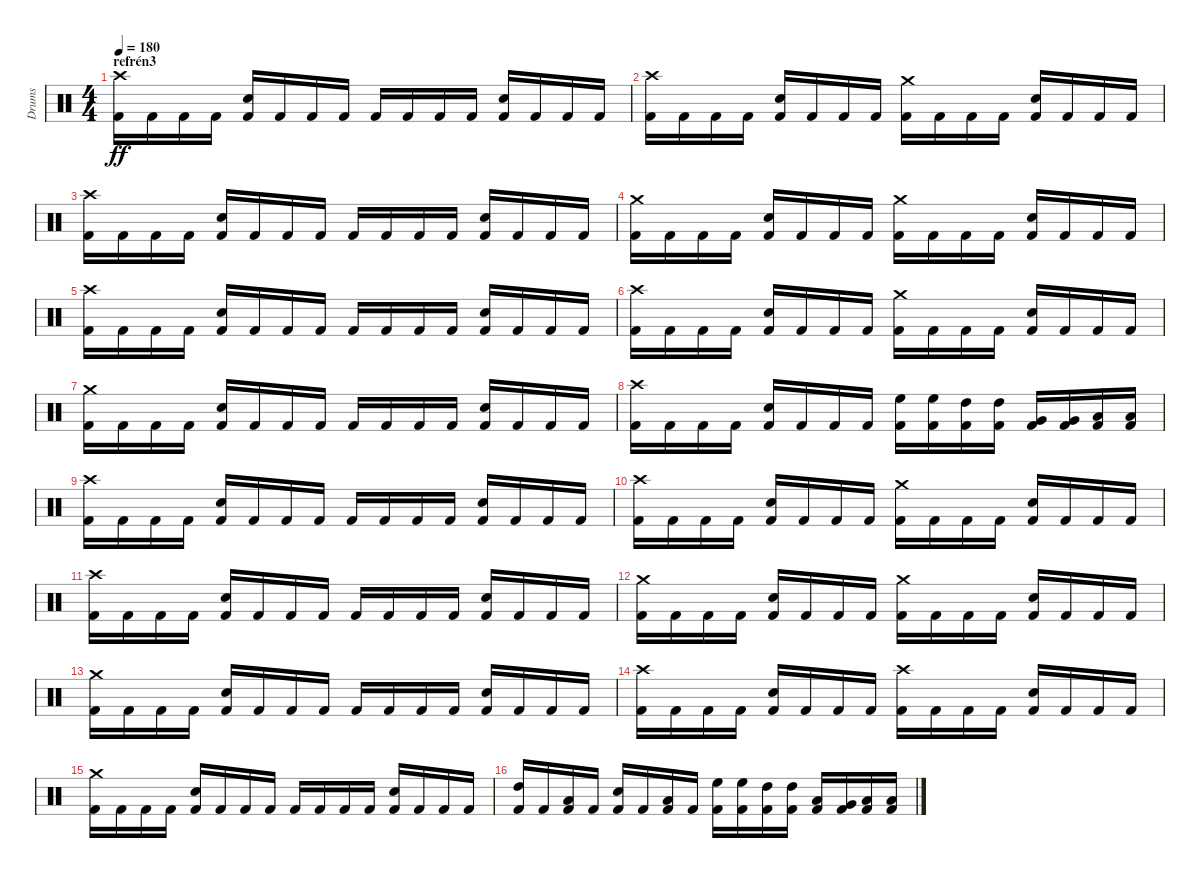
\track ("Drums" "Drums") {instrument percussion}
\staff {score}
\articulation defaults
\ts (4 4)
\section ("" "refrén3")
\tempo 180
\clef neutral
\ks c
("Crash high (hit)" "Kick (hit) 2").16{dy ff} "Kick (hit) 2".16 "Kick (hit) 2".16 "Kick (hit) 2".16 ("Snare (hit) 2" "Kick (hit) 2").16 "Kick (hit) 2".16 "Kick (hit) 2".16 "Kick (hit) 2".16 "Kick (hit) 2".16 "Kick (hit) 2".16 "Kick (hit) 2".16 "Kick (hit) 2".16 ("Snare (hit) 2" "Kick (hit) 2").16 "Kick (hit) 2".16 "Kick (hit) 2".16 "Kick (hit) 2".16 |
("Crash high (hit)" "Kick (hit) 2").16 "Kick (hit) 2".16 "Kick (hit) 2".16 "Kick (hit) 2".16 ("Snare (hit) 2" "Kick (hit) 2").16 "Kick (hit) 2".16 "Kick (hit) 2".16 "Kick (hit) 2".16 ("Crash medium (hit)" "Kick (hit) 2").16 "Kick (hit) 2".16 "Kick (hit) 2".16 "Kick (hit) 2".16 ("Snare (hit) 2" "Kick (hit) 2").16 "Kick (hit) 2".16 "Kick (hit) 2".16 "Kick (hit) 2".16 |
("Crash high (hit)" "Kick (hit) 2").16 "Kick (hit) 2".16 "Kick (hit) 2".16 "Kick (hit) 2".16 ("Snare (hit) 2" "Kick (hit) 2").16 "Kick (hit) 2".16 "Kick (hit) 2".16 "Kick (hit) 2".16 "Kick (hit) 2".16 "Kick (hit) 2".16 "Kick (hit) 2".16 "Kick (hit) 2".16 ("Snare (hit) 2" "Kick (hit) 2").16 "Kick (hit) 2".16 "Kick (hit) 2".16 "Kick (hit) 2".16 |
("Crash medium (hit)" "Kick (hit) 2").16 "Kick (hit) 2".16 "Kick (hit) 2".16 "Kick (hit) 2".16 ("Snare (hit) 2" "Kick (hit) 2").16 "Kick (hit) 2".16 "Kick (hit) 2".16 "Kick (hit) 2".16 ("Crash medium (hit)" "Kick (hit) 2").16 "Kick (hit) 2".16 "Kick (hit) 2".16 "Kick (hit) 2".16 ("Snare (hit) 2" "Kick (hit) 2").16 "Kick (hit) 2".16 "Kick (hit) 2".16 "Kick (hit) 2".16 |
("Crash high (hit)" "Kick (hit) 2").16 "Kick (hit) 2".16 "Kick (hit) 2".16 "Kick (hit) 2".16 ("Snare (hit) 2" "Kick (hit) 2").16 "Kick (hit) 2".16 "Kick (hit) 2".16 "Kick (hit) 2".16 "Kick (hit) 2".16 "Kick (hit) 2".16 "Kick (hit) 2".16 "Kick (hit) 2".16 ("Snare (hit) 2" "Kick (hit) 2").16 "Kick (hit) 2".16 "Kick (hit) 2".16 "Kick (hit) 2".16 |
("Crash high (hit)" "Kick (hit) 2").16 "Kick (hit) 2".16 "Kick (hit) 2".16 "Kick (hit) 2".16 ("Snare (hit) 2" "Kick (hit) 2").16 "Kick (hit) 2".16 "Kick (hit) 2".16 "Kick (hit) 2".16 ("Crash medium (hit)" "Kick (hit) 2").16 "Kick (hit) 2".16 "Kick (hit) 2".16 "Kick (hit) 2".16 ("Snare (hit) 2" "Kick (hit) 2").16 "Kick (hit) 2".16 "Kick (hit) 2".16 "Kick (hit) 2".16 |
("Crash medium (hit)" "Kick (hit) 2").16 "Kick (hit) 2".16 "Kick (hit) 2".16 "Kick (hit) 2".16 ("Snare (hit) 2" "Kick (hit) 2").16 "Kick (hit) 2".16 "Kick (hit) 2".16 "Kick (hit) 2".16 "Kick (hit) 2".16 "Kick (hit) 2".16 "Kick (hit) 2".16 "Kick (hit) 2".16 ("Snare (hit) 2" "Kick (hit) 2").16 "Kick (hit) 2".16 "Kick (hit) 2".16 "Kick (hit) 2".16 |
("Crash high (hit)" "Kick (hit) 2").16 "Kick (hit) 2".16 "Kick (hit) 2".16 "Kick (hit) 2".16 ("Snare (hit) 2" "Kick (hit) 2").16 "Kick (hit) 2".16 "Kick (hit) 2".16 "Kick (hit) 2".16 ("High Floor Tom (hit)" "Kick (hit) 2").16 ("High Floor Tom (hit)" "Kick (hit) 2").16 ("High Tom (hit)" "Kick (hit) 2").16 ("High Tom (hit)" "Kick (hit) 2").16 ("Very Low Tom (hit)" "Kick (hit) 2").16 ("Very Low Tom (hit)" "Kick (hit) 2").16 ("Low Floor Tom (hit)" "Kick (hit) 2").16 ("Low Floor Tom (hit)" "Kick (hit) 2").16 |
("Crash high (hit)" "Kick (hit) 2").16 "Kick (hit) 2".16 "Kick (hit) 2".16 "Kick (hit) 2".16 ("Snare (hit) 2" "Kick (hit) 2").16 "Kick (hit) 2".16 "Kick (hit) 2".16 "Kick (hit) 2".16 "Kick (hit) 2".16 "Kick (hit) 2".16 "Kick (hit) 2".16 "Kick (hit) 2".16 ("Snare (hit) 2" "Kick (hit) 2").16 "Kick (hit) 2".16 "Kick (hit) 2".16 "Kick (hit) 2".16 |
("Crash high (hit)" "Kick (hit) 2").16 "Kick (hit) 2".16 "Kick (hit) 2".16 "Kick (hit) 2".16 ("Snare (hit) 2" "Kick (hit) 2").16 "Kick (hit) 2".16 "Kick (hit) 2".16 "Kick (hit) 2".16 ("Crash medium (hit)" "Kick (hit) 2").16 "Kick (hit) 2".16 "Kick (hit) 2".16 "Kick (hit) 2".16 ("Snare (hit) 2" "Kick (hit) 2").16 "Kick (hit) 2".16 "Kick (hit) 2".16 "Kick (hit) 2".16 |
("Crash high (hit)" "Kick (hit) 2").16 "Kick (hit) 2".16 "Kick (hit) 2".16 "Kick (hit) 2".16 ("Snare (hit) 2" "Kick (hit) 2").16 "Kick (hit) 2".16 "Kick (hit) 2".16 "Kick (hit) 2".16 "Kick (hit) 2".16 "Kick (hit) 2".16 "Kick (hit) 2".16 "Kick (hit) 2".16 ("Snare (hit) 2" "Kick (hit) 2").16 "Kick (hit) 2".16 "Kick (hit) 2".16 "Kick (hit) 2".16 |
("Crash medium (hit)" "Kick (hit) 2").16 "Kick (hit) 2".16 "Kick (hit) 2".16 "Kick (hit) 2".16 ("Snare (hit) 2" "Kick (hit) 2").16 "Kick (hit) 2".16 "Kick (hit) 2".16 "Kick (hit) 2".16 ("Crash medium (hit)" "Kick (hit) 2").16 "Kick (hit) 2".16 "Kick (hit) 2".16 "Kick (hit) 2".16 ("Snare (hit) 2" "Kick (hit) 2").16 "Kick (hit) 2".16 "Kick (hit) 2".16 "Kick (hit) 2".16 |
("Crash medium (hit)" "Kick (hit) 2").16 "Kick (hit) 2".16 "Kick (hit) 2".16 "Kick (hit) 2".16 ("Snare (hit) 2" "Kick (hit) 2").16 "Kick (hit) 2".16 "Kick (hit) 2".16 "Kick (hit) 2".16 "Kick (hit) 2".16 "Kick (hit) 2".16 "Kick (hit) 2".16 "Kick (hit) 2".16 ("Snare (hit) 2" "Kick (hit) 2").16 "Kick (hit) 2".16 "Kick (hit) 2".16 "Kick (hit) 2".16 |
("Crash high (hit)" "Kick (hit) 2").16 "Kick (hit) 2".16 "Kick (hit) 2".16 "Kick (hit) 2".16 ("Snare (hit) 2" "Kick (hit) 2").16 "Kick (hit) 2".16 "Kick (hit) 2".16 "Kick (hit) 2".16 ("Crash high (hit)" "Kick (hit) 2").16 "Kick (hit) 2".16 "Kick (hit) 2".16 "Kick (hit) 2".16 ("Snare (hit) 2" "Kick (hit) 2").16 "Kick (hit) 2".16 "Kick (hit) 2".16 "Kick (hit) 2".16 |
("Crash medium (hit)" "Kick (hit) 2").16 "Kick (hit) 2".16 "Kick (hit) 2".16 "Kick (hit) 2".16 ("Snare (hit) 2" "Kick (hit) 2").16 "Kick (hit) 2".16 "Kick (hit) 2".16 "Kick (hit) 2".16 "Kick (hit) 2".16 "Kick (hit) 2".16 "Kick (hit) 2".16 "Kick (hit) 2".16 ("Snare (hit) 2" "Kick (hit) 2").16 "Kick (hit) 2".16 "Kick (hit) 2".16 "Kick (hit) 2".16 |
("High Tom (hit)" "Kick (hit) 2").16 "Kick (hit) 2".16 ("Low Tom (hit)" "Kick (hit) 2").16 "Kick (hit) 2".16 ("Snare (hit) 2" "Kick (hit) 2").16 "Kick (hit) 2".16 ("Low Tom (hit)" "Kick (hit) 2").16 "Kick (hit) 2".16 ("High Floor Tom (hit)" "Kick (hit) 2").16 ("High Floor Tom (hit)" "Kick (hit) 2").16 ("High Tom (hit)" "Kick (hit) 2").16 ("High Tom (hit)" "Kick (hit) 2").16 ("Low Tom (hit)" "Kick (hit) 2").16 ("Very Low Tom (hit)" "Kick (hit) 2").16 ("Low Floor Tom (hit)" "Kick (hit) 2").16 ("Low Floor Tom (hit)" "Kick (hit) 2").16
